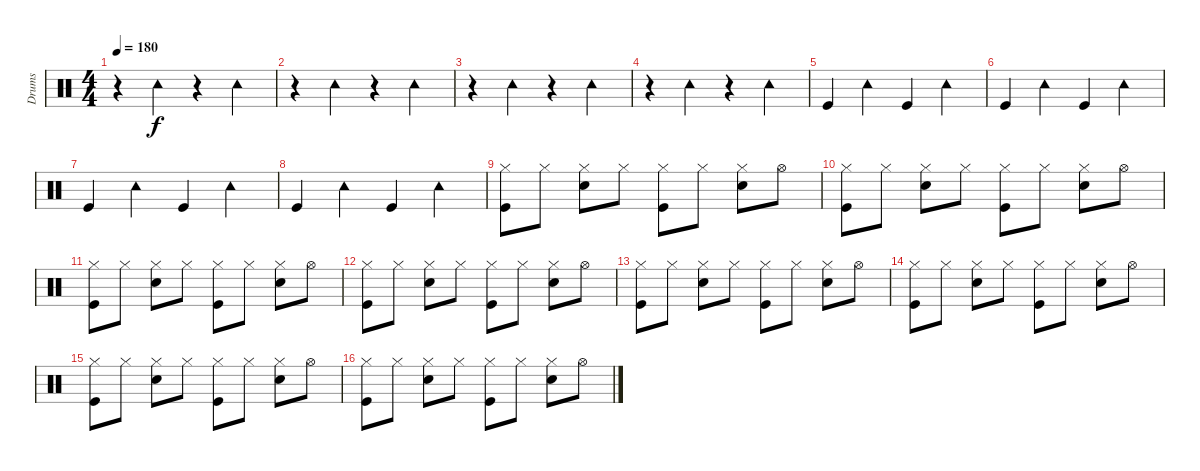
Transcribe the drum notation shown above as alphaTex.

\track ("Drums" "Drums") {instrument percussion}
\staff {score}
\articulation defaults
\ts (4 4)
\tempo 180
\clef neutral
\ks c
r.4{dy f} "Tambourine (hit)".4 r.4 "Tambourine (hit)".4 |
r.4 "Tambourine (hit)".4 r.4 "Tambourine (hit)".4 |
r.4 "Tambourine (hit)".4 r.4 "Tambourine (hit)".4 |
r.4 "Tambourine (hit)".4 r.4 "Tambourine (hit)".4 |
"Kick (hit)".4 "Tambourine (hit)".4 "Kick (hit)".4 "Tambourine (hit)".4 |
"Kick (hit)".4 "Tambourine (hit)".4 "Kick (hit)".4 "Tambourine (hit)".4 |
"Kick (hit)".4 "Tambourine (hit)".4 "Kick (hit)".4 "Tambourine (hit)".4 |
"Kick (hit)".4 "Tambourine (hit)".4 "Kick (hit)".4 "Tambourine (hit)".4 |
("Kick (hit)" "Hi-Hat (closed)").8 "Hi-Hat (closed)".8 ("Snare (hit) 2" "Hi-Hat (closed)").8 "Hi-Hat (closed)".8 ("Kick (hit)" "Hi-Hat (closed)").8 "Hi-Hat (closed)".8 ("Snare (hit) 2" "Hi-Hat (closed)").8 "Hi-Hat (open)".8 |
("Kick (hit)" "Hi-Hat (closed)").8 "Hi-Hat (closed)".8 ("Snare (hit) 2" "Hi-Hat (closed)").8 "Hi-Hat (closed)".8 ("Kick (hit)" "Hi-Hat (closed)").8 "Hi-Hat (closed)".8 ("Snare (hit) 2" "Hi-Hat (closed)").8 "Hi-Hat (open)".8 |
("Kick (hit)" "Hi-Hat (closed)").8 "Hi-Hat (closed)".8 ("Snare (hit) 2" "Hi-Hat (closed)").8 "Hi-Hat (closed)".8 ("Kick (hit)" "Hi-Hat (closed)").8 "Hi-Hat (closed)".8 ("Snare (hit) 2" "Hi-Hat (closed)").8 "Hi-Hat (open)".8 |
("Kick (hit)" "Hi-Hat (closed)").8 "Hi-Hat (closed)".8 ("Snare (hit) 2" "Hi-Hat (closed)").8 "Hi-Hat (closed)".8 ("Kick (hit)" "Hi-Hat (closed)").8 "Hi-Hat (closed)".8 ("Snare (hit) 2" "Hi-Hat (closed)").8 "Hi-Hat (open)".8 |
("Kick (hit)" "Hi-Hat (closed)").8 "Hi-Hat (closed)".8 ("Snare (hit) 2" "Hi-Hat (closed)").8 "Hi-Hat (closed)".8 ("Kick (hit)" "Hi-Hat (closed)").8 "Hi-Hat (closed)".8 ("Snare (hit) 2" "Hi-Hat (closed)").8 "Hi-Hat (open)".8 |
("Kick (hit)" "Hi-Hat (closed)").8 "Hi-Hat (closed)".8 ("Snare (hit) 2" "Hi-Hat (closed)").8 "Hi-Hat (closed)".8 ("Kick (hit)" "Hi-Hat (closed)").8 "Hi-Hat (closed)".8 ("Snare (hit) 2" "Hi-Hat (closed)").8 "Hi-Hat (open)".8 |
("Kick (hit)" "Hi-Hat (closed)").8 "Hi-Hat (closed)".8 ("Snare (hit) 2" "Hi-Hat (closed)").8 "Hi-Hat (closed)".8 ("Kick (hit)" "Hi-Hat (closed)").8 "Hi-Hat (closed)".8 ("Snare (hit) 2" "Hi-Hat (closed)").8 "Hi-Hat (open)".8 |
("Kick (hit)" "Hi-Hat (closed)").8 "Hi-Hat (closed)".8 ("Snare (hit) 2" "Hi-Hat (closed)").8 "Hi-Hat (closed)".8 ("Kick (hit)" "Hi-Hat (closed)").8 "Hi-Hat (closed)".8 ("Snare (hit) 2" "Hi-Hat (closed)").8 "Hi-Hat (open)".8
